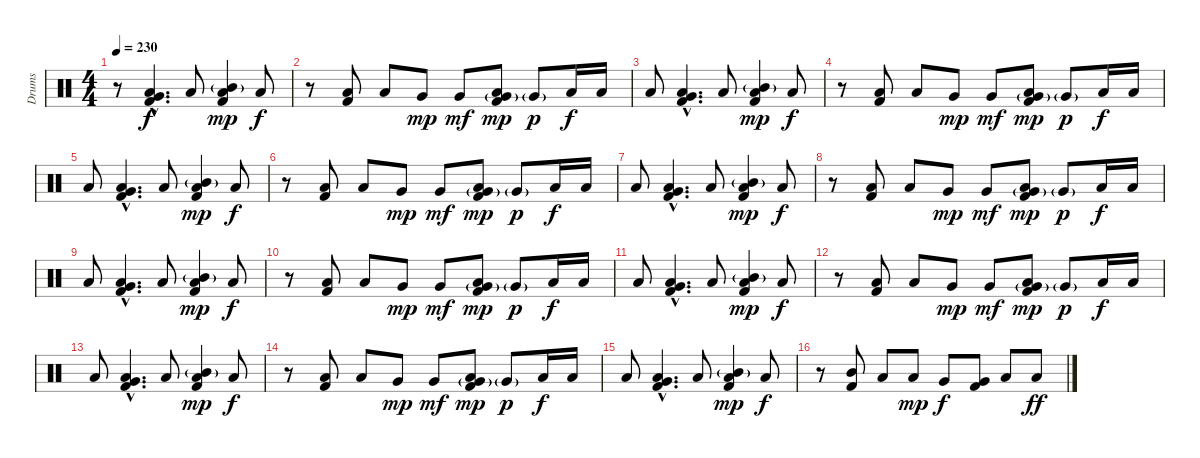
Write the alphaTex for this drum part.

\track ("Drums" "Drums") {instrument percussion}
\staff {score}
\articulation defaults
\ts (4 4)
\tempo 230
\clef neutral
\ks c
r.8{dy f} ("Very Low Tom (hit)"{hac} "Low Floor Tom (hit)"{hac} "Kick (hit) 2"{hac}).4{d} "Low Tom (hit)".8 ("Mid Tom (hit)"{g} "Low Tom (hit)" "Kick (hit) 2").4{dy mp} "Low Tom (hit)".8{dy f} |
r.8 ("Low Tom (hit)" "Kick (hit) 2").8 "Low Tom (hit)".8 "Very Low Tom (hit)".8{dy mp} "Very Low Tom (hit)".8{dy mf} ("Very Low Tom (hit)"{g} "Low Tom (hit)" "Kick (hit) 2").8{dy mp} "Very Low Tom (hit)"{g}.8{dy p} "Low Floor Tom (hit)".16{dy f} "Low Floor Tom (hit)".16 |
"Low Floor Tom (hit)".8 ("Very Low Tom (hit)"{hac} "Low Floor Tom (hit)"{hac} "Kick (hit) 2"{hac}).4{d} "Low Tom (hit)".8 ("Mid Tom (hit)"{g} "Low Tom (hit)" "Kick (hit) 2").4{dy mp} "Low Tom (hit)".8{dy f} |
r.8 ("Low Tom (hit)" "Kick (hit) 2").8 "Low Tom (hit)".8 "Very Low Tom (hit)".8{dy mp} "Very Low Tom (hit)".8{dy mf} ("Very Low Tom (hit)"{g} "Low Tom (hit)" "Kick (hit) 2").8{dy mp} "Very Low Tom (hit)"{g}.8{dy p} "Low Floor Tom (hit)".16{dy f} "Low Floor Tom (hit)".16 |
"Low Floor Tom (hit)".8 ("Very Low Tom (hit)"{hac} "Low Floor Tom (hit)"{hac} "Kick (hit) 2"{hac}).4{d} "Low Tom (hit)".8 ("Mid Tom (hit)"{g} "Low Tom (hit)" "Kick (hit) 2").4{dy mp} "Low Tom (hit)".8{dy f} |
r.8 ("Low Tom (hit)" "Kick (hit) 2").8 "Low Tom (hit)".8 "Very Low Tom (hit)".8{dy mp} "Very Low Tom (hit)".8{dy mf} ("Very Low Tom (hit)"{g} "Low Tom (hit)" "Kick (hit) 2").8{dy mp} "Very Low Tom (hit)"{g}.8{dy p} "Low Floor Tom (hit)".16{dy f} "Low Floor Tom (hit)".16 |
"Low Floor Tom (hit)".8 ("Very Low Tom (hit)"{hac} "Low Floor Tom (hit)"{hac} "Kick (hit) 2"{hac}).4{d} "Low Tom (hit)".8 ("Mid Tom (hit)"{g} "Low Tom (hit)" "Kick (hit) 2").4{dy mp} "Low Tom (hit)".8{dy f} |
r.8 ("Low Tom (hit)" "Kick (hit) 2").8 "Low Tom (hit)".8 "Very Low Tom (hit)".8{dy mp} "Very Low Tom (hit)".8{dy mf} ("Very Low Tom (hit)"{g} "Low Tom (hit)" "Kick (hit) 2").8{dy mp} "Very Low Tom (hit)"{g}.8{dy p} "Low Floor Tom (hit)".16{dy f} "Low Floor Tom (hit)".16 |
"Low Floor Tom (hit)".8 ("Very Low Tom (hit)"{hac} "Low Floor Tom (hit)"{hac} "Kick (hit) 2"{hac}).4{d} "Low Tom (hit)".8 ("Mid Tom (hit)"{g} "Low Tom (hit)" "Kick (hit) 2").4{dy mp} "Low Tom (hit)".8{dy f} |
r.8 ("Low Tom (hit)" "Kick (hit) 2").8 "Low Tom (hit)".8 "Very Low Tom (hit)".8{dy mp} "Very Low Tom (hit)".8{dy mf} ("Very Low Tom (hit)"{g} "Low Tom (hit)" "Kick (hit) 2").8{dy mp} "Very Low Tom (hit)"{g}.8{dy p} "Low Floor Tom (hit)".16{dy f} "Low Floor Tom (hit)".16 |
"Low Floor Tom (hit)".8 ("Very Low Tom (hit)"{hac} "Low Floor Tom (hit)"{hac} "Kick (hit) 2"{hac}).4{d} "Low Tom (hit)".8 ("Mid Tom (hit)"{g} "Low Tom (hit)" "Kick (hit) 2").4{dy mp} "Low Tom (hit)".8{dy f} |
r.8 ("Low Tom (hit)" "Kick (hit) 2").8 "Low Tom (hit)".8 "Very Low Tom (hit)".8{dy mp} "Very Low Tom (hit)".8{dy mf} ("Very Low Tom (hit)"{g} "Low Tom (hit)" "Kick (hit) 2").8{dy mp} "Very Low Tom (hit)"{g}.8{dy p} "Low Floor Tom (hit)".16{dy f} "Low Floor Tom (hit)".16 |
"Low Floor Tom (hit)".8 ("Very Low Tom (hit)"{hac} "Low Floor Tom (hit)"{hac} "Kick (hit) 2"{hac}).4{d} "Low Tom (hit)".8 ("Mid Tom (hit)"{g} "Low Tom (hit)" "Kick (hit) 2").4{dy mp} "Low Tom (hit)".8{dy f} |
r.8 ("Low Tom (hit)" "Kick (hit) 2").8 "Low Tom (hit)".8 "Very Low Tom (hit)".8{dy mp} "Very Low Tom (hit)".8{dy mf} ("Very Low Tom (hit)"{g} "Low Tom (hit)" "Kick (hit) 2").8{dy mp} "Very Low Tom (hit)"{g}.8{dy p} "Low Floor Tom (hit)".16{dy f} "Low Floor Tom (hit)".16 |
"Low Floor Tom (hit)".8 ("Very Low Tom (hit)"{hac} "Low Floor Tom (hit)"{hac} "Kick (hit) 2"{hac}).4{d} "Low Tom (hit)".8 ("Mid Tom (hit)"{g} "Low Tom (hit)" "Kick (hit) 2").4{dy mp} "Low Tom (hit)".8{dy f} |
r.8 ("Mid Tom (hit)" "Kick (hit) 2").8 "Low Tom (hit)".8 "Low Tom (hit)".8{dy mp} "Very Low Tom (hit)".8{dy f} ("Very Low Tom (hit)" "Kick (hit) 2").8 "Low Floor Tom (hit)".8 "Low Floor Tom (hit)".8{dy ff}
